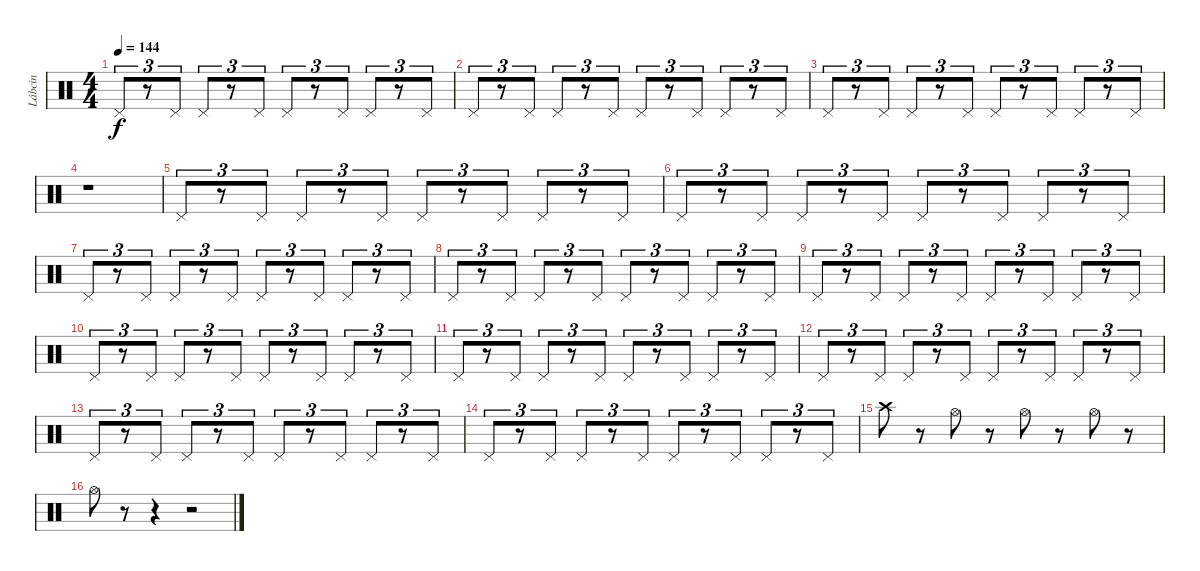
\track ("Lábcin" "Lábcin") {instrument percussion}
\staff {score}
\articulation defaults
\ts (4 4)
\tempo 144
\clef neutral
\ks c "Pedal Hi-Hat (hit)".8{tu (3 2) dy f}
r.8{tu (3 2)} "Pedal Hi-Hat (hit)".8{tu (3 2)} "Pedal Hi-Hat (hit)".8{tu (3 2)} r.8{tu (3 2)} "Pedal Hi-Hat (hit)".8{tu (3 2)} "Pedal Hi-Hat (hit)".8{tu (3 2)} r.8{tu (3 2)} "Pedal Hi-Hat (hit)".8{tu (3 2)} "Pedal Hi-Hat (hit)".8{tu (3 2)} r.8{tu (3 2)} "Pedal Hi-Hat (hit)".8{tu (3 2)} |
"Pedal Hi-Hat (hit)".8{tu (3 2)} r.8{tu (3 2)} "Pedal Hi-Hat (hit)".8{tu (3 2)} "Pedal Hi-Hat (hit)".8{tu (3 2)} r.8{tu (3 2)} "Pedal Hi-Hat (hit)".8{tu (3 2)} "Pedal Hi-Hat (hit)".8{tu (3 2)} r.8{tu (3 2)} "Pedal Hi-Hat (hit)".8{tu (3 2)} "Pedal Hi-Hat (hit)".8{tu (3 2)} r.8{tu (3 2)} "Pedal Hi-Hat (hit)".8{tu (3 2)} |
"Pedal Hi-Hat (hit)".8{tu (3 2)} r.8{tu (3 2)} "Pedal Hi-Hat (hit)".8{tu (3 2)} "Pedal Hi-Hat (hit)".8{tu (3 2)} r.8{tu (3 2)} "Pedal Hi-Hat (hit)".8{tu (3 2)} "Pedal Hi-Hat (hit)".8{tu (3 2)} r.8{tu (3 2)} "Pedal Hi-Hat (hit)".8{tu (3 2)} "Pedal Hi-Hat (hit)".8{tu (3 2)} r.8{tu (3 2)} "Pedal Hi-Hat (hit)".8{tu (3 2)} |
r.1 |
"Pedal Hi-Hat (hit)".8{tu (3 2)} r.8{tu (3 2)} "Pedal Hi-Hat (hit)".8{tu (3 2)} "Pedal Hi-Hat (hit)".8{tu (3 2)} r.8{tu (3 2)} "Pedal Hi-Hat (hit)".8{tu (3 2)} "Pedal Hi-Hat (hit)".8{tu (3 2)} r.8{tu (3 2)} "Pedal Hi-Hat (hit)".8{tu (3 2)} "Pedal Hi-Hat (hit)".8{tu (3 2)} r.8{tu (3 2)} "Pedal Hi-Hat (hit)".8{tu (3 2)} |
"Pedal Hi-Hat (hit)".8{tu (3 2)} r.8{tu (3 2)} "Pedal Hi-Hat (hit)".8{tu (3 2)} "Pedal Hi-Hat (hit)".8{tu (3 2)} r.8{tu (3 2)} "Pedal Hi-Hat (hit)".8{tu (3 2)} "Pedal Hi-Hat (hit)".8{tu (3 2)} r.8{tu (3 2)} "Pedal Hi-Hat (hit)".8{tu (3 2)} "Pedal Hi-Hat (hit)".8{tu (3 2)} r.8{tu (3 2)} "Pedal Hi-Hat (hit)".8{tu (3 2)} |
"Pedal Hi-Hat (hit)".8{tu (3 2)} r.8{tu (3 2)} "Pedal Hi-Hat (hit)".8{tu (3 2)} "Pedal Hi-Hat (hit)".8{tu (3 2)} r.8{tu (3 2)} "Pedal Hi-Hat (hit)".8{tu (3 2)} "Pedal Hi-Hat (hit)".8{tu (3 2)} r.8{tu (3 2)} "Pedal Hi-Hat (hit)".8{tu (3 2)} "Pedal Hi-Hat (hit)".8{tu (3 2)} r.8{tu (3 2)} "Pedal Hi-Hat (hit)".8{tu (3 2)} |
"Pedal Hi-Hat (hit)".8{tu (3 2)} r.8{tu (3 2)} "Pedal Hi-Hat (hit)".8{tu (3 2)} "Pedal Hi-Hat (hit)".8{tu (3 2)} r.8{tu (3 2)} "Pedal Hi-Hat (hit)".8{tu (3 2)} "Pedal Hi-Hat (hit)".8{tu (3 2)} r.8{tu (3 2)} "Pedal Hi-Hat (hit)".8{tu (3 2)} "Pedal Hi-Hat (hit)".8{tu (3 2)} r.8{tu (3 2)} "Pedal Hi-Hat (hit)".8{tu (3 2)} |
"Pedal Hi-Hat (hit)".8{tu (3 2)} r.8{tu (3 2)} "Pedal Hi-Hat (hit)".8{tu (3 2)} "Pedal Hi-Hat (hit)".8{tu (3 2)} r.8{tu (3 2)} "Pedal Hi-Hat (hit)".8{tu (3 2)} "Pedal Hi-Hat (hit)".8{tu (3 2)} r.8{tu (3 2)} "Pedal Hi-Hat (hit)".8{tu (3 2)} "Pedal Hi-Hat (hit)".8{tu (3 2)} r.8{tu (3 2)} "Pedal Hi-Hat (hit)".8{tu (3 2)} |
"Pedal Hi-Hat (hit)".8{tu (3 2)} r.8{tu (3 2)} "Pedal Hi-Hat (hit)".8{tu (3 2)} "Pedal Hi-Hat (hit)".8{tu (3 2)} r.8{tu (3 2)} "Pedal Hi-Hat (hit)".8{tu (3 2)} "Pedal Hi-Hat (hit)".8{tu (3 2)} r.8{tu (3 2)} "Pedal Hi-Hat (hit)".8{tu (3 2)} "Pedal Hi-Hat (hit)".8{tu (3 2)} r.8{tu (3 2)} "Pedal Hi-Hat (hit)".8{tu (3 2)} |
"Pedal Hi-Hat (hit)".8{tu (3 2)} r.8{tu (3 2)} "Pedal Hi-Hat (hit)".8{tu (3 2)} "Pedal Hi-Hat (hit)".8{tu (3 2)} r.8{tu (3 2)} "Pedal Hi-Hat (hit)".8{tu (3 2)} "Pedal Hi-Hat (hit)".8{tu (3 2)} r.8{tu (3 2)} "Pedal Hi-Hat (hit)".8{tu (3 2)} "Pedal Hi-Hat (hit)".8{tu (3 2)} r.8{tu (3 2)} "Pedal Hi-Hat (hit)".8{tu (3 2)} |
"Pedal Hi-Hat (hit)".8{tu (3 2)} r.8{tu (3 2)} "Pedal Hi-Hat (hit)".8{tu (3 2)} "Pedal Hi-Hat (hit)".8{tu (3 2)} r.8{tu (3 2)} "Pedal Hi-Hat (hit)".8{tu (3 2)} "Pedal Hi-Hat (hit)".8{tu (3 2)} r.8{tu (3 2)} "Pedal Hi-Hat (hit)".8{tu (3 2)} "Pedal Hi-Hat (hit)".8{tu (3 2)} r.8{tu (3 2)} "Pedal Hi-Hat (hit)".8{tu (3 2)} |
"Pedal Hi-Hat (hit)".8{tu (3 2)} r.8{tu (3 2)} "Pedal Hi-Hat (hit)".8{tu (3 2)} "Pedal Hi-Hat (hit)".8{tu (3 2)} r.8{tu (3 2)} "Pedal Hi-Hat (hit)".8{tu (3 2)} "Pedal Hi-Hat (hit)".8{tu (3 2)} r.8{tu (3 2)} "Pedal Hi-Hat (hit)".8{tu (3 2)} "Pedal Hi-Hat (hit)".8{tu (3 2)} r.8{tu (3 2)} "Pedal Hi-Hat (hit)".8{tu (3 2)} |
"Pedal Hi-Hat (hit)".8{tu (3 2)} r.8{tu (3 2)} "Pedal Hi-Hat (hit)".8{tu (3 2)} "Pedal Hi-Hat (hit)".8{tu (3 2)} r.8{tu (3 2)} "Pedal Hi-Hat (hit)".8{tu (3 2)} "Pedal Hi-Hat (hit)".8{tu (3 2)} r.8{tu (3 2)} "Pedal Hi-Hat (hit)".8{tu (3 2)} "Pedal Hi-Hat (hit)".8{tu (3 2)} r.8{tu (3 2)} "Pedal Hi-Hat (hit)".8{tu (3 2)} |
"Crash high (hit)".8 r.8 "Hi-Hat (open)".8 r.8 "Hi-Hat (open)".8 r.8 "Hi-Hat (open)".8 r.8 |
"Hi-Hat (open)".8 r.8 r.4 r.2
